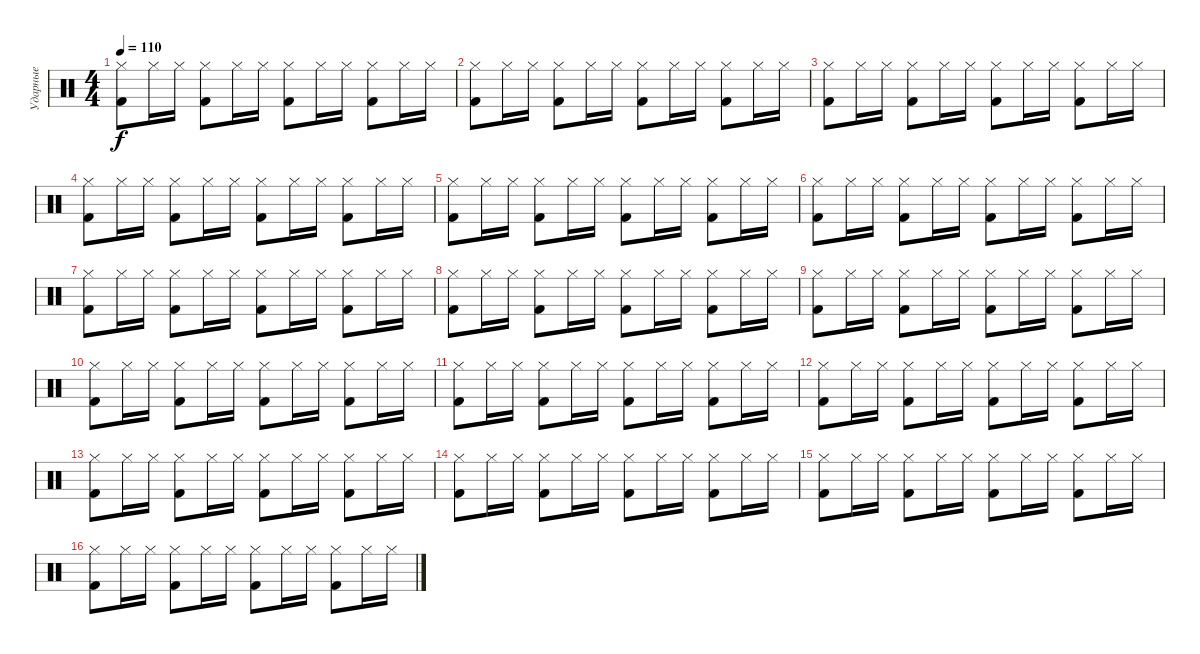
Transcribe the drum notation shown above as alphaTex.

\track ("Ударные" "Ударные") {instrument percussion}
\staff {score}
\articulation defaults
\ts (4 4)
\tempo 110
\clef neutral
\ks c
("Kick (hit) 2" "Hi-Hat (closed)").8{dy f} "Hi-Hat (closed)".16 "Hi-Hat (closed)".16 ("Kick (hit) 2" "Hi-Hat (closed)").8 "Hi-Hat (closed)".16 "Hi-Hat (closed)".16 ("Kick (hit) 2" "Hi-Hat (closed)").8 "Hi-Hat (closed)".16 "Hi-Hat (closed)".16 ("Kick (hit) 2" "Hi-Hat (closed)").8 "Hi-Hat (closed)".16 "Hi-Hat (closed)".16 |
("Kick (hit) 2" "Hi-Hat (closed)").8 "Hi-Hat (closed)".16 "Hi-Hat (closed)".16 ("Kick (hit) 2" "Hi-Hat (closed)").8 "Hi-Hat (closed)".16 "Hi-Hat (closed)".16 ("Kick (hit) 2" "Hi-Hat (closed)").8 "Hi-Hat (closed)".16 "Hi-Hat (closed)".16 ("Kick (hit) 2" "Hi-Hat (closed)").8 "Hi-Hat (closed)".16 "Hi-Hat (closed)".16 |
("Kick (hit) 2" "Hi-Hat (closed)").8 "Hi-Hat (closed)".16 "Hi-Hat (closed)".16 ("Kick (hit) 2" "Hi-Hat (closed)").8 "Hi-Hat (closed)".16 "Hi-Hat (closed)".16 ("Kick (hit) 2" "Hi-Hat (closed)").8 "Hi-Hat (closed)".16 "Hi-Hat (closed)".16 ("Kick (hit) 2" "Hi-Hat (closed)").8 "Hi-Hat (closed)".16 "Hi-Hat (closed)".16 |
("Kick (hit) 2" "Hi-Hat (closed)").8 "Hi-Hat (closed)".16 "Hi-Hat (closed)".16 ("Kick (hit) 2" "Hi-Hat (closed)").8 "Hi-Hat (closed)".16 "Hi-Hat (closed)".16 ("Kick (hit) 2" "Hi-Hat (closed)").8 "Hi-Hat (closed)".16 "Hi-Hat (closed)".16 ("Kick (hit) 2" "Hi-Hat (closed)").8 "Hi-Hat (closed)".16 "Hi-Hat (closed)".16 |
("Kick (hit) 2" "Hi-Hat (closed)").8 "Hi-Hat (closed)".16 "Hi-Hat (closed)".16 ("Kick (hit) 2" "Hi-Hat (closed)").8 "Hi-Hat (closed)".16 "Hi-Hat (closed)".16 ("Kick (hit) 2" "Hi-Hat (closed)").8 "Hi-Hat (closed)".16 "Hi-Hat (closed)".16 ("Kick (hit) 2" "Hi-Hat (closed)").8 "Hi-Hat (closed)".16 "Hi-Hat (closed)".16 |
("Kick (hit) 2" "Hi-Hat (closed)").8 "Hi-Hat (closed)".16 "Hi-Hat (closed)".16 ("Kick (hit) 2" "Hi-Hat (closed)").8 "Hi-Hat (closed)".16 "Hi-Hat (closed)".16 ("Kick (hit) 2" "Hi-Hat (closed)").8 "Hi-Hat (closed)".16 "Hi-Hat (closed)".16 ("Kick (hit) 2" "Hi-Hat (closed)").8 "Hi-Hat (closed)".16 "Hi-Hat (closed)".16 |
("Kick (hit) 2" "Hi-Hat (closed)").8 "Hi-Hat (closed)".16 "Hi-Hat (closed)".16 ("Kick (hit) 2" "Hi-Hat (closed)").8 "Hi-Hat (closed)".16 "Hi-Hat (closed)".16 ("Kick (hit) 2" "Hi-Hat (closed)").8 "Hi-Hat (closed)".16 "Hi-Hat (closed)".16 ("Kick (hit) 2" "Hi-Hat (closed)").8 "Hi-Hat (closed)".16 "Hi-Hat (closed)".16 |
("Kick (hit) 2" "Hi-Hat (closed)").8 "Hi-Hat (closed)".16 "Hi-Hat (closed)".16 ("Kick (hit) 2" "Hi-Hat (closed)").8 "Hi-Hat (closed)".16 "Hi-Hat (closed)".16 ("Kick (hit) 2" "Hi-Hat (closed)").8 "Hi-Hat (closed)".16 "Hi-Hat (closed)".16 ("Kick (hit) 2" "Hi-Hat (closed)").8 "Hi-Hat (closed)".16 "Hi-Hat (closed)".16 |
("Kick (hit) 2" "Hi-Hat (closed)").8 "Hi-Hat (closed)".16 "Hi-Hat (closed)".16 ("Kick (hit) 2" "Hi-Hat (closed)").8 "Hi-Hat (closed)".16 "Hi-Hat (closed)".16 ("Kick (hit) 2" "Hi-Hat (closed)").8 "Hi-Hat (closed)".16 "Hi-Hat (closed)".16 ("Kick (hit) 2" "Hi-Hat (closed)").8 "Hi-Hat (closed)".16 "Hi-Hat (closed)".16 |
("Kick (hit) 2" "Hi-Hat (closed)").8 "Hi-Hat (closed)".16 "Hi-Hat (closed)".16 ("Kick (hit) 2" "Hi-Hat (closed)").8 "Hi-Hat (closed)".16 "Hi-Hat (closed)".16 ("Kick (hit) 2" "Hi-Hat (closed)").8 "Hi-Hat (closed)".16 "Hi-Hat (closed)".16 ("Kick (hit) 2" "Hi-Hat (closed)").8 "Hi-Hat (closed)".16 "Hi-Hat (closed)".16 |
("Kick (hit) 2" "Hi-Hat (closed)").8 "Hi-Hat (closed)".16 "Hi-Hat (closed)".16 ("Kick (hit) 2" "Hi-Hat (closed)").8 "Hi-Hat (closed)".16 "Hi-Hat (closed)".16 ("Kick (hit) 2" "Hi-Hat (closed)").8 "Hi-Hat (closed)".16 "Hi-Hat (closed)".16 ("Kick (hit) 2" "Hi-Hat (closed)").8 "Hi-Hat (closed)".16 "Hi-Hat (closed)".16 |
("Kick (hit) 2" "Hi-Hat (closed)").8 "Hi-Hat (closed)".16 "Hi-Hat (closed)".16 ("Kick (hit) 2" "Hi-Hat (closed)").8 "Hi-Hat (closed)".16 "Hi-Hat (closed)".16 ("Kick (hit) 2" "Hi-Hat (closed)").8 "Hi-Hat (closed)".16 "Hi-Hat (closed)".16 ("Kick (hit) 2" "Hi-Hat (closed)").8 "Hi-Hat (closed)".16 "Hi-Hat (closed)".16 |
("Kick (hit) 2" "Hi-Hat (closed)").8 "Hi-Hat (closed)".16 "Hi-Hat (closed)".16 ("Kick (hit) 2" "Hi-Hat (closed)").8 "Hi-Hat (closed)".16 "Hi-Hat (closed)".16 ("Kick (hit) 2" "Hi-Hat (closed)").8 "Hi-Hat (closed)".16 "Hi-Hat (closed)".16 ("Kick (hit) 2" "Hi-Hat (closed)").8 "Hi-Hat (closed)".16 "Hi-Hat (closed)".16 |
("Kick (hit) 2" "Hi-Hat (closed)").8 "Hi-Hat (closed)".16 "Hi-Hat (closed)".16 ("Kick (hit) 2" "Hi-Hat (closed)").8 "Hi-Hat (closed)".16 "Hi-Hat (closed)".16 ("Kick (hit) 2" "Hi-Hat (closed)").8 "Hi-Hat (closed)".16 "Hi-Hat (closed)".16 ("Kick (hit) 2" "Hi-Hat (closed)").8 "Hi-Hat (closed)".16 "Hi-Hat (closed)".16 |
("Kick (hit) 2" "Hi-Hat (closed)").8 "Hi-Hat (closed)".16 "Hi-Hat (closed)".16 ("Kick (hit) 2" "Hi-Hat (closed)").8 "Hi-Hat (closed)".16 "Hi-Hat (closed)".16 ("Kick (hit) 2" "Hi-Hat (closed)").8 "Hi-Hat (closed)".16 "Hi-Hat (closed)".16 ("Kick (hit) 2" "Hi-Hat (closed)").8 "Hi-Hat (closed)".16 "Hi-Hat (closed)".16 |
("Kick (hit) 2" "Hi-Hat (closed)").8 "Hi-Hat (closed)".16 "Hi-Hat (closed)".16 ("Kick (hit) 2" "Hi-Hat (closed)").8 "Hi-Hat (closed)".16 "Hi-Hat (closed)".16 ("Kick (hit) 2" "Hi-Hat (closed)").8 "Hi-Hat (closed)".16 "Hi-Hat (closed)".16 ("Kick (hit) 2" "Hi-Hat (closed)").8 "Hi-Hat (closed)".16 "Hi-Hat (closed)".16
